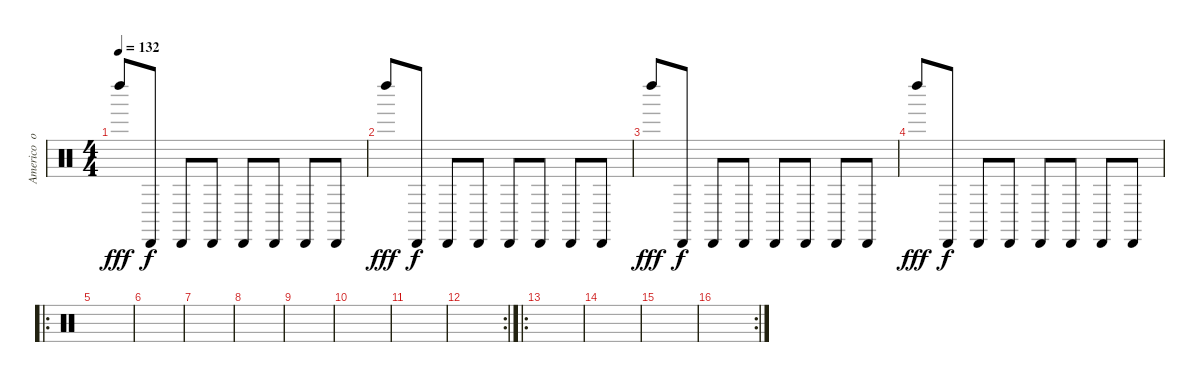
\track ("Americo  ortega percussion" "Americo  o") {instrument percussion}
\staff {score}
\articulation defaults
\ts (4 4)
\tempo 132
\clef neutral
\ks c "Left Maraca (hit)".8{dy fff} "Cabasa (hit)".8{dy f} "Cabasa (hit)".8 "Cabasa (hit)".8 "Cabasa (hit)".8 "Cabasa (hit)".8 "Cabasa (hit)".8 "Cabasa (hit)".8
|
"Left Maraca (hit)".8{dy fff} "Cabasa (hit)".8{dy f} "Cabasa (hit)".8 "Cabasa (hit)".8 "Cabasa (hit)".8 "Cabasa (hit)".8 "Cabasa (hit)".8 "Cabasa (hit)".8 |
"Left Maraca (hit)".8{dy fff} "Cabasa (hit)".8{dy f} "Cabasa (hit)".8 "Cabasa (hit)".8 "Cabasa (hit)".8 "Cabasa (hit)".8 "Cabasa (hit)".8 "Cabasa (hit)".8 |
"Left Maraca (hit)".8{dy fff} "Cabasa (hit)".8{dy f} "Cabasa (hit)".8 "Cabasa (hit)".8 "Cabasa (hit)".8 "Cabasa (hit)".8 "Cabasa (hit)".8 "Cabasa (hit)".8 |
\ro
|
|
|
|
|
|
|
\rc 2
|
\ro
|
|
|
\rc 2
